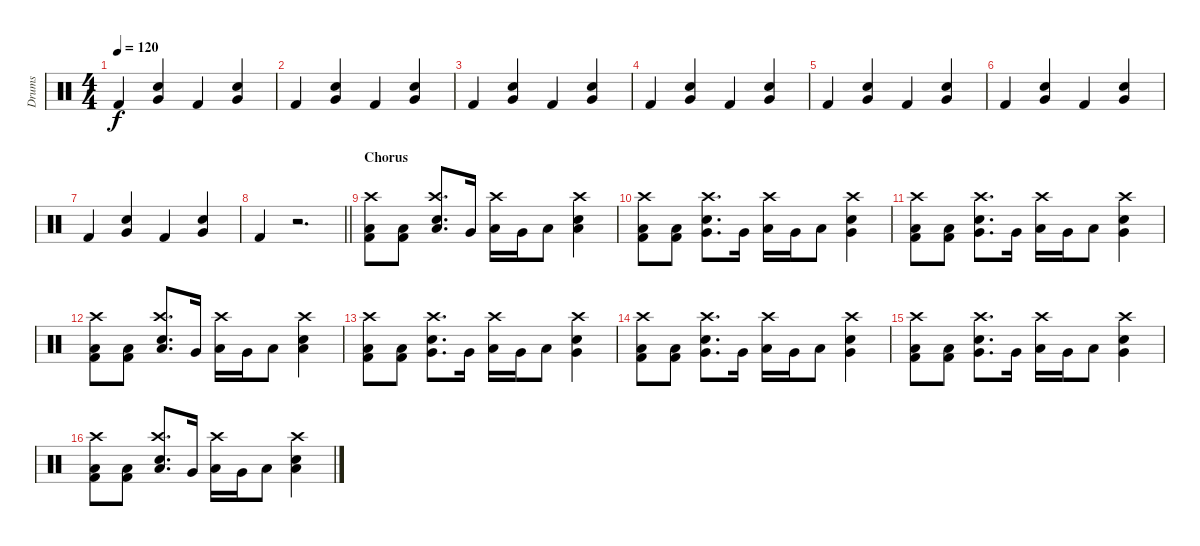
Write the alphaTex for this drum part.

\track ("Drums" "Drums") {instrument percussion}
\staff {score}
\articulation defaults
\ts (4 4)
\tempo 120
\clef neutral
\ks c "Kick (hit) 2".4{dy f}
("Electric Snare (hit)" "Very Low Tom (hit)").4 "Kick (hit) 2".4 ("Electric Snare (hit)" "Very Low Tom (hit)").4 |
"Kick (hit) 2".4 ("Electric Snare (hit)" "Very Low Tom (hit)").4 "Kick (hit) 2".4 ("Electric Snare (hit)" "Very Low Tom (hit)").4 |
"Kick (hit) 2".4 ("Electric Snare (hit)" "Very Low Tom (hit)").4 "Kick (hit) 2".4 ("Electric Snare (hit)" "Very Low Tom (hit)").4 |
"Kick (hit) 2".4 ("Electric Snare (hit)" "Very Low Tom (hit)").4 "Kick (hit) 2".4 ("Electric Snare (hit)" "Very Low Tom (hit)").4 |
"Kick (hit) 2".4 ("Electric Snare (hit)" "Very Low Tom (hit)").4 "Kick (hit) 2".4 ("Electric Snare (hit)" "Very Low Tom (hit)").4 |
"Kick (hit) 2".4 ("Electric Snare (hit)" "Very Low Tom (hit)").4 "Kick (hit) 2".4 ("Electric Snare (hit)" "Very Low Tom (hit)").4 |
"Kick (hit) 2".4 ("Electric Snare (hit)" "Very Low Tom (hit)").4 "Kick (hit) 2".4 ("Electric Snare (hit)" "Very Low Tom (hit)").4 |
\barLineRight lightlight "Kick (hit) 2".4
r.2{d} |
\section ("" "Chorus")
("Low Floor Tom (hit)" "Kick (hit) 2" "Crash high (hit)").8 ("Low Floor Tom (hit)" "Kick (hit) 2").8 ("Low Tom (hit)" "Electric Snare (hit)" "Crash high (hit)").8{d} "Very Low Tom (hit)".16 ("Low Tom (hit)" "Crash high (hit)").16 "Very Low Tom (hit)".16 "Low Tom (hit)".8 ("Electric Snare (hit)" "Low Tom (hit)" "Crash high (hit)").4 |
("Low Floor Tom (hit)" "Kick (hit) 2" "Crash high (hit)").8 ("Low Floor Tom (hit)" "Kick (hit) 2").8 ("Very Low Tom (hit)" "Electric Snare (hit)" "Crash high (hit)").8{d} "Very Low Tom (hit)".16 ("Low Tom (hit)" "Crash high (hit)").16 "Very Low Tom (hit)".16 "Low Tom (hit)".8 ("Electric Snare (hit)" "Very Low Tom (hit)" "Crash high (hit)").4 |
("Low Floor Tom (hit)" "Kick (hit) 2" "Crash high (hit)").8 ("Low Floor Tom (hit)" "Kick (hit) 2").8 ("Very Low Tom (hit)" "Electric Snare (hit)" "Crash high (hit)").8{d} "Very Low Tom (hit)".16 ("Low Tom (hit)" "Crash high (hit)").16 "Very Low Tom (hit)".16 "Low Tom (hit)".8 ("Electric Snare (hit)" "Very Low Tom (hit)" "Crash high (hit)").4 |
("Low Floor Tom (hit)" "Kick (hit) 2" "Crash high (hit)").8 ("Low Floor Tom (hit)" "Kick (hit) 2").8 ("Low Tom (hit)" "Electric Snare (hit)" "Crash high (hit)").8{d} "Very Low Tom (hit)".16 ("Low Tom (hit)" "Crash high (hit)").16 "Very Low Tom (hit)".16 "Low Tom (hit)".8 ("Electric Snare (hit)" "Low Tom (hit)" "Crash high (hit)").4 |
("Low Floor Tom (hit)" "Kick (hit) 2" "Crash high (hit)").8 ("Low Floor Tom (hit)" "Kick (hit) 2").8 ("Very Low Tom (hit)" "Electric Snare (hit)" "Crash high (hit)").8{d} "Very Low Tom (hit)".16 ("Low Tom (hit)" "Crash high (hit)").16 "Very Low Tom (hit)".16 "Low Tom (hit)".8 ("Electric Snare (hit)" "Very Low Tom (hit)" "Crash high (hit)").4 |
("Low Floor Tom (hit)" "Kick (hit) 2" "Crash high (hit)").8 ("Low Floor Tom (hit)" "Kick (hit) 2").8 ("Very Low Tom (hit)" "Electric Snare (hit)" "Crash high (hit)").8{d} "Very Low Tom (hit)".16 ("Low Tom (hit)" "Crash high (hit)").16 "Very Low Tom (hit)".16 "Low Tom (hit)".8 ("Electric Snare (hit)" "Very Low Tom (hit)" "Crash high (hit)").4 |
("Low Floor Tom (hit)" "Kick (hit) 2" "Crash high (hit)").8 ("Low Floor Tom (hit)" "Kick (hit) 2").8 ("Very Low Tom (hit)" "Electric Snare (hit)" "Crash high (hit)").8{d} "Very Low Tom (hit)".16 ("Low Tom (hit)" "Crash high (hit)").16 "Very Low Tom (hit)".16 "Low Tom (hit)".8 ("Electric Snare (hit)" "Very Low Tom (hit)" "Crash high (hit)").4 |
("Low Floor Tom (hit)" "Kick (hit) 2" "Crash high (hit)").8 ("Low Floor Tom (hit)" "Kick (hit) 2").8 ("Low Tom (hit)" "Electric Snare (hit)" "Crash high (hit)").8{d} "Very Low Tom (hit)".16 ("Low Tom (hit)" "Crash high (hit)").16 "Very Low Tom (hit)".16 "Low Tom (hit)".8 ("Electric Snare (hit)" "Low Tom (hit)" "Crash high (hit)").4
